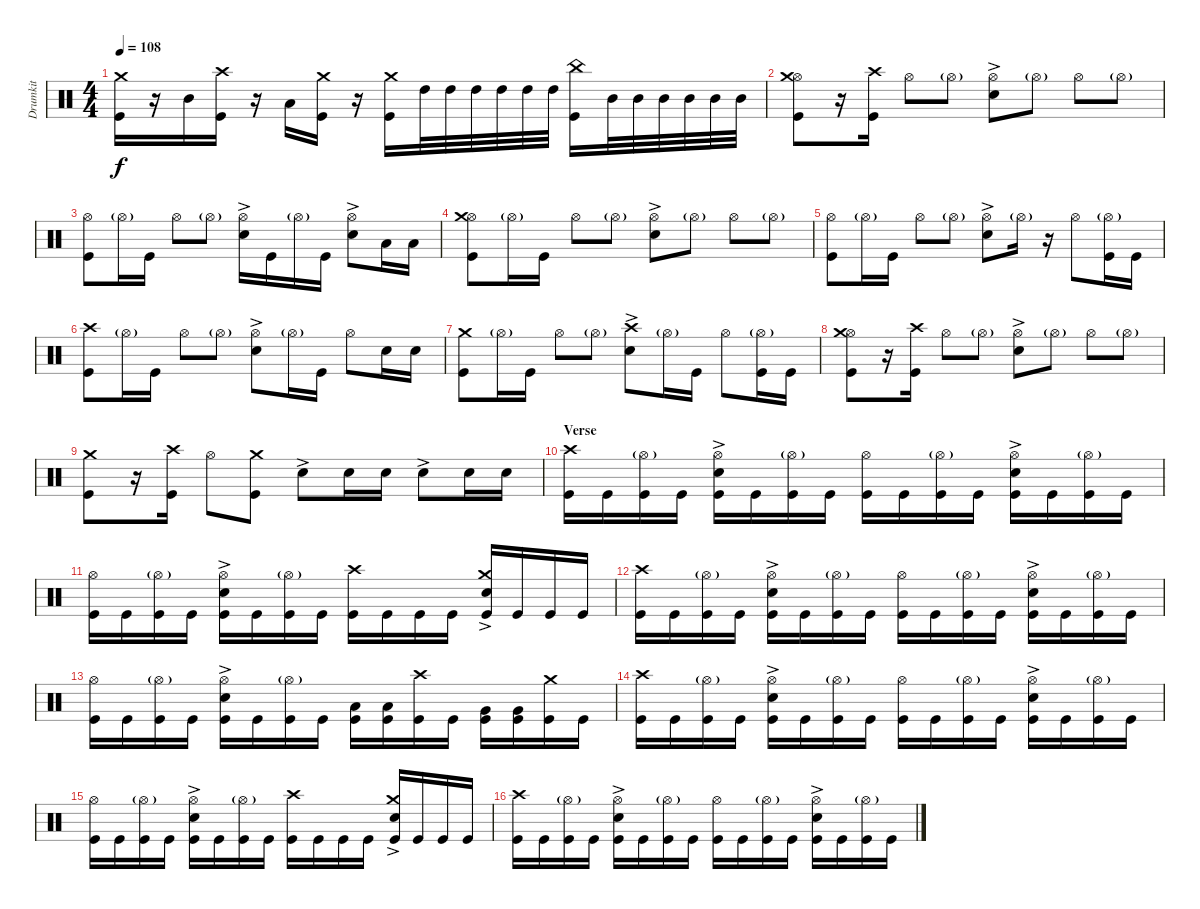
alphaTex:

\track ("Drumkit" "Drumkit") {instrument percussion}
\staff {score}
\articulation defaults
\ts (4 4)
\tempo 108
\clef neutral
\ks c
("Kick (hit)" "Crash medium (hit)").16{dy f} r.16 "Mid Tom (hit)".16 ("Kick (hit)" "Crash high (hit)").16 r.16 "Low Tom (hit)".16 ("Kick (hit)" "Crash medium (hit)").16 r.16 ("Kick (hit)" "Crash medium (hit)").16 "High Tom (hit)".32 "High Tom (hit)".32 "High Tom (hit)".32 "High Tom (hit)".32 "High Tom (hit)".32 "High Tom (hit)".32 ("Kick (hit)" "China (hit)").16 "Mid Tom (hit)".32 "Mid Tom (hit)".32 "Mid Tom (hit)".32 "Mid Tom (hit)".32 "Mid Tom (hit)".32 "Mid Tom (hit)".32 |
("Kick (hit)" "Hi-Hat (open)" "Crash medium (hit)").8 r.16 ("Kick (hit)" "Crash high (hit)").16 "Hi-Hat (open)".8 "Hi-Hat (open)"{g}.8 ("Hi-Hat (open)" "Snare (hit) 2"{ac}).8 "Hi-Hat (open)"{g}.8 "Hi-Hat (open)".8 "Hi-Hat (open)"{g}.8 |
("Kick (hit)" "Hi-Hat (open)").8 "Hi-Hat (open)"{g}.16 "Kick (hit)".16 "Hi-Hat (open)".8 "Hi-Hat (open)"{g}.8 ("Hi-Hat (open)" "Snare (hit) 2"{ac}).16 "Kick (hit)".16 "Hi-Hat (open)"{g}.16 "Kick (hit)".16 ("Hi-Hat (open)" "Snare (hit) 2"{ac}).8 "Low Tom (hit)".16 "Low Tom (hit)".16 |
("Kick (hit)" "Hi-Hat (open)" "Crash medium (hit)").8 "Hi-Hat (open)"{g}.16 "Kick (hit)".16 "Hi-Hat (open)".8 "Hi-Hat (open)"{g}.8 ("Hi-Hat (open)" "Snare (hit) 2"{ac}).8 "Hi-Hat (open)"{g}.8 "Hi-Hat (open)".8 "Hi-Hat (open)"{g}.8 |
("Kick (hit)" "Hi-Hat (open)").8 "Hi-Hat (open)"{g}.16 "Kick (hit)".16 "Hi-Hat (open)".8 "Hi-Hat (open)"{g}.8 ("Hi-Hat (open)" "Snare (hit) 2"{ac}).8 "Hi-Hat (open)"{g}.16 r.16 "Hi-Hat (open)".8 ("Hi-Hat (open)"{g} "Kick (hit)").16 "Kick (hit)".16 |
("Kick (hit)" "Crash high (hit)").8 "Hi-Hat (open)"{g}.16 "Kick (hit)".16 "Hi-Hat (open)".8 "Hi-Hat (open)"{g}.8 ("Hi-Hat (open)" "Snare (hit) 2"{ac}).8 "Hi-Hat (open)"{g}.16 "Kick (hit)".16 "Hi-Hat (open)".8 "Snare (hit) 2".16 "Snare (hit) 2".16 |
("Kick (hit)" "Crash medium (hit)").8 "Hi-Hat (open)"{g}.16 "Kick (hit)".16 "Hi-Hat (open)".8 "Hi-Hat (open)"{g}.8 ("Snare (hit) 2"{ac} "Crash high (hit)").8 "Hi-Hat (open)"{g}.16 "Kick (hit)".16 "Hi-Hat (open)".8 ("Hi-Hat (open)"{g} "Kick (hit)").16 "Kick (hit)".16 |
("Kick (hit)" "Hi-Hat (open)" "Crash medium (hit)").8 r.16 ("Kick (hit)" "Crash high (hit)").16 "Hi-Hat (open)".8 "Hi-Hat (open)"{g}.8 ("Hi-Hat (open)" "Snare (hit) 2"{ac}).8 "Hi-Hat (open)"{g}.8 "Hi-Hat (open)".8 "Hi-Hat (open)"{g}.8 |
("Kick (hit)" "Crash medium (hit)").8 r.16 ("Kick (hit)" "Crash high (hit)").16 "Hi-Hat (open)".8 ("Crash medium (hit)" "Kick (hit)").8 "Snare (hit) 2"{ac}.8 "Snare (hit) 2".16 "Snare (hit) 2".16 "Snare (hit) 2"{ac}.8 "Snare (hit) 2".16 "Snare (hit) 2".16 |
\section ("" "Verse")
("Kick (hit)" "Crash high (hit)").16 "Kick (hit)".16 ("Kick (hit)" "Hi-Hat (open)"{g}).16 "Kick (hit)".16 ("Kick (hit)" "Snare (hit) 2"{ac} "Hi-Hat (open)").16 "Kick (hit)".16 ("Kick (hit)" "Hi-Hat (open)"{g}).16 "Kick (hit)".16 ("Kick (hit)" "Hi-Hat (open)").16 "Kick (hit)".16 ("Kick (hit)" "Hi-Hat (open)"{g}).16 "Kick (hit)".16 ("Kick (hit)" "Snare (hit) 2"{ac} "Hi-Hat (open)").16 "Kick (hit)".16 ("Kick (hit)" "Hi-Hat (open)"{g}).16 "Kick (hit)".16 |
("Kick (hit)" "Hi-Hat (open)").16 "Kick (hit)".16 ("Kick (hit)" "Hi-Hat (open)"{g}).16 "Kick (hit)".16 ("Kick (hit)" "Snare (hit) 2"{ac} "Hi-Hat (open)").16 "Kick (hit)".16 ("Kick (hit)" "Hi-Hat (open)"{g}).16 "Kick (hit)".16 ("Kick (hit)" "Crash high (hit)").16 "Kick (hit)".16 "Kick (hit)".16 "Kick (hit)".16 ("Kick (hit)" "Snare (hit) 2"{ac} "Crash medium (hit)").16 "Kick (hit)".16 "Kick (hit)".16 "Kick (hit)".16 |
("Kick (hit)" "Crash high (hit)").16 "Kick (hit)".16 ("Kick (hit)" "Hi-Hat (open)"{g}).16 "Kick (hit)".16 ("Kick (hit)" "Snare (hit) 2"{ac} "Hi-Hat (open)").16 "Kick (hit)".16 ("Kick (hit)" "Hi-Hat (open)"{g}).16 "Kick (hit)".16 ("Kick (hit)" "Hi-Hat (open)").16 "Kick (hit)".16 ("Kick (hit)" "Hi-Hat (open)"{g}).16 "Kick (hit)".16 ("Kick (hit)" "Snare (hit) 2"{ac} "Hi-Hat (open)").16 "Kick (hit)".16 ("Kick (hit)" "Hi-Hat (open)"{g}).16 "Kick (hit)".16 |
("Kick (hit)" "Hi-Hat (open)").16 "Kick (hit)".16 ("Kick (hit)" "Hi-Hat (open)"{g}).16 "Kick (hit)".16 ("Kick (hit)" "Snare (hit) 2"{ac} "Hi-Hat (open)").16 "Kick (hit)".16 ("Kick (hit)" "Hi-Hat (open)"{g}).16 "Kick (hit)".16 ("Kick (hit)" "Low Tom (hit)").16 ("Kick (hit)" "Low Tom (hit)").16 ("Kick (hit)" "Crash high (hit)").16 "Kick (hit)".16 ("Kick (hit)" "Very Low Tom (hit)").16 ("Kick (hit)" "Very Low Tom (hit)").16 ("Kick (hit)" "Crash medium (hit)").16 "Kick (hit)".16 |
("Kick (hit)" "Crash high (hit)").16 "Kick (hit)".16 ("Kick (hit)" "Hi-Hat (open)"{g}).16 "Kick (hit)".16 ("Kick (hit)" "Snare (hit) 2"{ac} "Hi-Hat (open)").16 "Kick (hit)".16 ("Kick (hit)" "Hi-Hat (open)"{g}).16 "Kick (hit)".16 ("Kick (hit)" "Hi-Hat (open)").16 "Kick (hit)".16 ("Kick (hit)" "Hi-Hat (open)"{g}).16 "Kick (hit)".16 ("Kick (hit)" "Snare (hit) 2"{ac} "Hi-Hat (open)").16 "Kick (hit)".16 ("Kick (hit)" "Hi-Hat (open)"{g}).16 "Kick (hit)".16 |
("Kick (hit)" "Hi-Hat (open)").16 "Kick (hit)".16 ("Kick (hit)" "Hi-Hat (open)"{g}).16 "Kick (hit)".16 ("Kick (hit)" "Snare (hit) 2"{ac} "Hi-Hat (open)").16 "Kick (hit)".16 ("Kick (hit)" "Hi-Hat (open)"{g}).16 "Kick (hit)".16 ("Kick (hit)" "Crash high (hit)").16 "Kick (hit)".16 "Kick (hit)".16 "Kick (hit)".16 ("Kick (hit)" "Snare (hit) 2"{ac} "Crash medium (hit)").16 "Kick (hit)".16 "Kick (hit)".16 "Kick (hit)".16 |
("Kick (hit)" "Crash high (hit)").16 "Kick (hit)".16 ("Kick (hit)" "Hi-Hat (open)"{g}).16 "Kick (hit)".16 ("Kick (hit)" "Snare (hit) 2"{ac} "Hi-Hat (open)").16 "Kick (hit)".16 ("Kick (hit)" "Hi-Hat (open)"{g}).16 "Kick (hit)".16 ("Kick (hit)" "Hi-Hat (open)").16 "Kick (hit)".16 ("Kick (hit)" "Hi-Hat (open)"{g}).16 "Kick (hit)".16 ("Kick (hit)" "Snare (hit) 2"{ac} "Hi-Hat (open)").16 "Kick (hit)".16 ("Kick (hit)" "Hi-Hat (open)"{g}).16 "Kick (hit)".16
